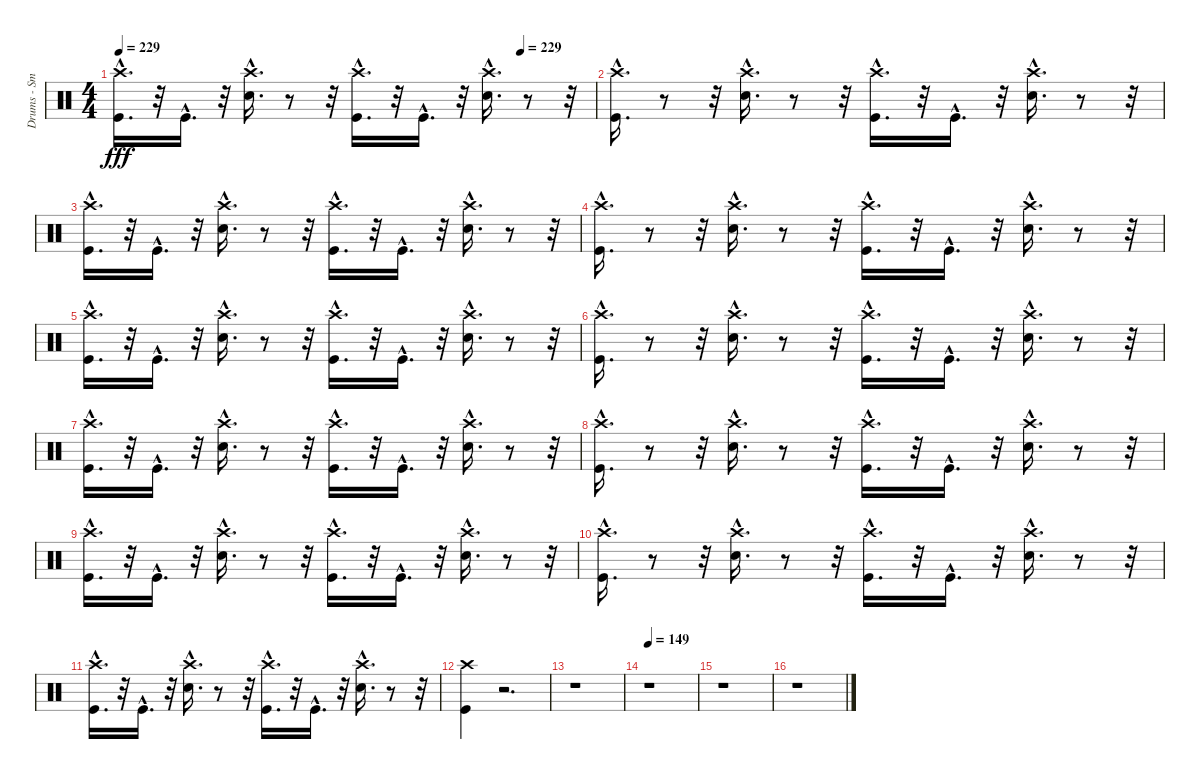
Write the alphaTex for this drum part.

\track ("Drums - Smelly" "Drums - Sm") {instrument percussion}
\staff {score}
\articulation defaults
\ts (4 4)
\tempo 229
\tempo (229 0.84375)
\clef neutral
\ks c
("Crash high (hit)"{hac} "Kick (hit)"{hac}).16{d dy fff} r.32 "Kick (hit)"{hac}.16{d} r.32 ("Crash high (hit)"{hac} "Electric Snare (hit)"{hac}).16{d} r.8 r.32 ("Crash high (hit)"{hac} "Kick (hit)"{hac}).16{d} r.32 "Kick (hit)"{hac}.16{d} r.32 ("Crash high (hit)"{hac} "Electric Snare (hit)"{hac}).16{d} r.8 r.32 |
("Kick (hit)"{hac} "Crash high (hit)"{hac}).16{d} r.8 r.32 ("Electric Snare (hit)"{hac} "Crash high (hit)"{hac}).16{d} r.8 r.32 ("Kick (hit)"{hac} "Crash high (hit)"{hac}).16{d} r.32 "Kick (hit)"{hac}.16{d} r.32 ("Electric Snare (hit)"{hac} "Crash high (hit)"{hac}).16{d} r.8 r.32 |
("Crash high (hit)"{hac} "Kick (hit)"{hac}).16{d} r.32 "Kick (hit)"{hac}.16{d} r.32 ("Electric Snare (hit)"{hac} "Crash high (hit)"{hac}).16{d} r.8 r.32 ("Kick (hit)"{hac} "Crash high (hit)"{hac}).16{d} r.32 "Kick (hit)"{hac}.16{d} r.32 ("Crash high (hit)"{hac} "Electric Snare (hit)"{hac}).16{d} r.8 r.32 |
("Crash high (hit)"{hac} "Kick (hit)"{hac}).16{d} r.8 r.32 ("Crash high (hit)"{hac} "Electric Snare (hit)"{hac}).16{d} r.8 r.32 ("Crash high (hit)"{hac} "Kick (hit)"{hac}).16{d} r.32 "Kick (hit)"{hac}.16{d} r.32 ("Crash high (hit)"{hac} "Electric Snare (hit)"{hac}).16{d} r.8 r.32 |
("Kick (hit)"{hac} "Crash high (hit)"{hac}).16{d} r.32 "Kick (hit)"{hac}.16{d} r.32 ("Crash high (hit)"{hac} "Electric Snare (hit)"{hac}).16{d} r.8 r.32 ("Kick (hit)"{hac} "Crash high (hit)"{hac}).16{d} r.32 "Kick (hit)"{hac}.16{d} r.32 ("Crash high (hit)"{hac} "Electric Snare (hit)"{hac}).16{d} r.8 r.32 |
("Crash high (hit)"{hac} "Kick (hit)"{hac}).16{d} r.8 r.32 ("Electric Snare (hit)"{hac} "Crash high (hit)"{hac}).16{d} r.8 r.32 ("Kick (hit)"{hac} "Crash high (hit)"{hac}).16{d} r.32 "Kick (hit)"{hac}.16{d} r.32 ("Crash high (hit)"{hac} "Electric Snare (hit)"{hac}).16{d} r.8 r.32 |
("Crash high (hit)"{hac} "Kick (hit)"{hac}).16{d} r.32 "Kick (hit)"{hac}.16{d} r.32 ("Electric Snare (hit)"{hac} "Crash high (hit)"{hac}).16{d} r.8 r.32 ("Kick (hit)"{hac} "Crash high (hit)"{hac}).16{d} r.32 "Kick (hit)"{hac}.16{d} r.32 ("Crash high (hit)"{hac} "Electric Snare (hit)"{hac}).16{d} r.8 r.32 |
("Kick (hit)"{hac} "Crash high (hit)"{hac}).16{d} r.8 r.32 ("Crash high (hit)"{hac} "Electric Snare (hit)"{hac}).16{d} r.8 r.32 ("Kick (hit)"{hac} "Crash high (hit)"{hac}).16{d} r.32 "Kick (hit)"{hac}.16{d} r.32 ("Electric Snare (hit)"{hac} "Crash high (hit)"{hac}).16{d} r.8 r.32 |
("Crash high (hit)"{hac} "Kick (hit)"{hac}).16{d} r.32 "Kick (hit)"{hac}.16{d} r.32 ("Electric Snare (hit)"{hac} "Crash high (hit)"{hac}).16{d} r.8 r.32 ("Crash high (hit)"{hac} "Kick (hit)"{hac}).16{d} r.32 "Kick (hit)"{hac}.16{d} r.32 ("Crash high (hit)"{hac} "Electric Snare (hit)"{hac}).16{d} r.8 r.32 |
("Kick (hit)"{hac} "Crash high (hit)"{hac}).16{d} r.8 r.32 ("Electric Snare (hit)"{hac} "Crash high (hit)"{hac}).16{d} r.8 r.32 ("Kick (hit)"{hac} "Crash high (hit)"{hac}).16{d} r.32 "Kick (hit)"{hac}.16{d} r.32 ("Crash high (hit)"{hac} "Electric Snare (hit)"{hac}).16{d} r.8 r.32 |
("Crash high (hit)"{hac} "Kick (hit)"{hac}).16{d} r.32 "Kick (hit)"{hac}.16{d} r.32 ("Electric Snare (hit)"{hac} "Crash high (hit)"{hac}).16{d} r.8 r.32 ("Crash high (hit)"{hac} "Kick (hit)"{hac}).16{d} r.32 "Kick (hit)"{hac}.16{d} r.32 ("Electric Snare (hit)"{hac} "Crash high (hit)"{hac}).16{d} r.8 r.32 |
("Kick (hit)" "Crash high (hit)").4 r.2{d} |
r.1 |
\tempo 149
r.1 |
r.1 |
r.1
